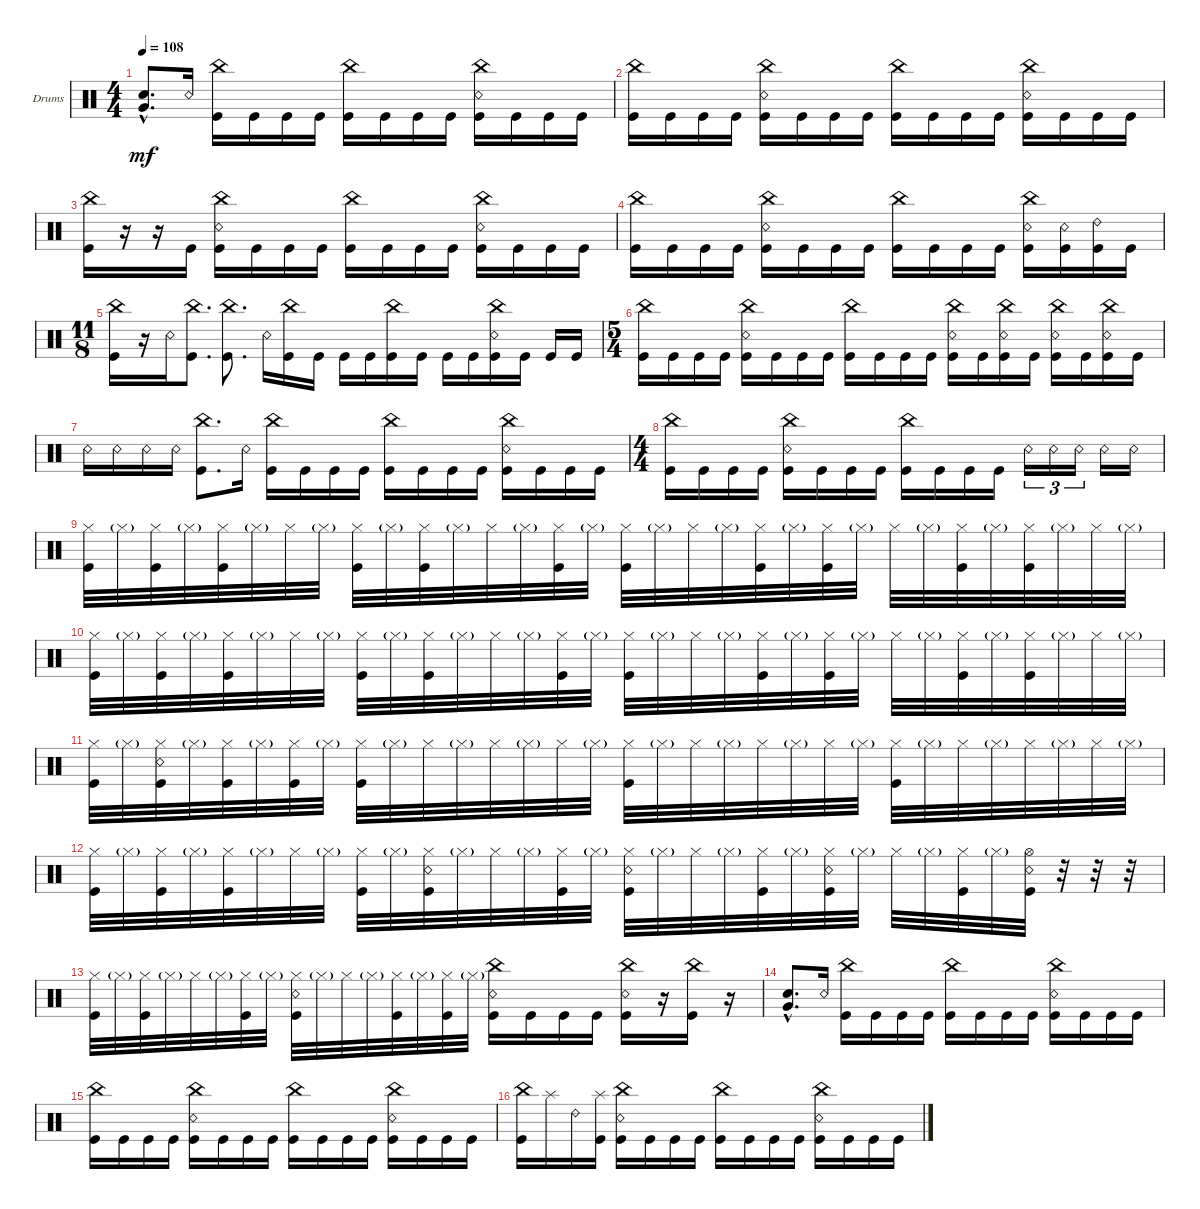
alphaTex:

\defaultSystemsLayout 4
\bracketExtendMode groupsimilarinstruments
\firstSystemTrackNameOrientation horizontal
\otherSystemsTrackNameOrientation horizontal
\track ("Drumkit" "Drums") {instrument percussion}
\staff {score}
\articulation defaults
\ts (4 4)
\tempo 108
\clef neutral
\ks c
("Snare (hit) 2" "Very Low Tom (hit)"{hac}).8{d dy mf} "Snare (rim shot)".16 ("Kick (hit)" "China (hit)").16 "Kick (hit)".16 "Kick (hit)".16 "Kick (hit)".16 ("Kick (hit)" "China (hit)").16 "Kick (hit)".16 "Kick (hit)".16 "Kick (hit)".16 ("Kick (hit)" "China (hit)" "Snare (rim shot)").16 "Kick (hit)".16 "Kick (hit)".16 "Kick (hit)".16 |
("Kick (hit)" "China (hit)").16 "Kick (hit)".16 "Kick (hit)".16 "Kick (hit)".16 ("Kick (hit)" "China (hit)" "Snare (rim shot)").16 "Kick (hit)".16 "Kick (hit)".16 "Kick (hit)".16 ("Kick (hit)" "China (hit)").16 "Kick (hit)".16 "Kick (hit)".16 "Kick (hit)".16 ("Kick (hit)" "China (hit)" "Snare (rim shot)").16 "Kick (hit)".16 "Kick (hit)".16 "Kick (hit)".16 |
("Kick (hit)" "China (hit)").16 r.16 r.16 "Kick (hit)".16 ("Kick (hit)" "China (hit)" "Snare (rim shot)").16 "Kick (hit)".16 "Kick (hit)".16 "Kick (hit)".16 ("Kick (hit)" "China (hit)").16 "Kick (hit)".16 "Kick (hit)".16 "Kick (hit)".16 ("Kick (hit)" "China (hit)" "Snare (rim shot)").16 "Kick (hit)".16 "Kick (hit)".16 "Kick (hit)".16 |
("Kick (hit)" "China (hit)").16 "Kick (hit)".16 "Kick (hit)".16 "Kick (hit)".16 ("Kick (hit)" "China (hit)" "Snare (rim shot)").16 "Kick (hit)".16 "Kick (hit)".16 "Kick (hit)".16 ("Kick (hit)" "China (hit)").16 "Kick (hit)".16 "Kick (hit)".16 "Kick (hit)".16 ("Kick (hit)" "China (hit)" "Snare (rim shot)").16 ("Kick (hit)" "Snare (rim shot)").16 ("Kick (hit)" "Ride (bell) 2").16 "Kick (hit)".16 |
\ts (11 8)
("Kick (hit)" "China (hit)").16 r.16 "Snare (rim shot)".16 ("Kick (hit)" "China (hit)").8{d} ("Kick (hit)" "China (hit)").8{d} "Snare (rim shot)".16 ("Kick (hit)" "China (hit)").16 "Kick (hit)".16 "Kick (hit)".16 "Kick (hit)".16 ("Kick (hit)" "China (hit)").16 "Kick (hit)".16 "Kick (hit)".16 "Kick (hit)".16 ("Kick (hit)" "China (hit)" "Snare (rim shot)").16 "Kick (hit)".16 "Kick (hit)".16 "Kick (hit)".16 |
\ts (5 4)
("Kick (hit)" "China (hit)").16 "Kick (hit)".16 "Kick (hit)".16 "Kick (hit)".16 ("Kick (hit)" "China (hit)" "Snare (rim shot)").16 "Kick (hit)".16 "Kick (hit)".16 "Kick (hit)".16 ("Kick (hit)" "China (hit)").16 "Kick (hit)".16 "Kick (hit)".16 "Kick (hit)".16 ("Kick (hit)" "China (hit)" "Snare (rim shot)").16 "Kick (hit)".16 ("Kick (hit)" "China (hit)" "Snare (rim shot)").16 "Kick (hit)".16 ("Kick (hit)" "China (hit)" "Snare (rim shot)").16 "Kick (hit)".16 ("Kick (hit)" "China (hit)" "Snare (rim shot)").16 "Kick (hit)".16 |
"Snare (rim shot)".16 "Snare (rim shot)".16 "Snare (rim shot)".16 "Snare (rim shot)".16 ("Kick (hit)" "China (hit)").8{d} "Snare (rim shot)".16 ("Kick (hit)" "China (hit)").16 "Kick (hit)".16 "Kick (hit)".16 "Kick (hit)".16 ("Kick (hit)" "China (hit)").16 "Kick (hit)".16 "Kick (hit)".16 "Kick (hit)".16 ("Kick (hit)" "China (hit)" "Snare (rim shot)").16 "Kick (hit)".16 "Kick (hit)".16 "Kick (hit)".16 |
\ts (4 4)
("Kick (hit)" "China (hit)").16 "Kick (hit)".16 "Kick (hit)".16 "Kick (hit)".16 ("Kick (hit)" "China (hit)" "Snare (rim shot)").16 "Kick (hit)".16 "Kick (hit)".16 "Kick (hit)".16 ("Kick (hit)" "China (hit)").16 "Kick (hit)".16 "Kick (hit)".16 "Kick (hit)".16 "Snare (rim shot)".16{tu (3 2)} "Snare (rim shot)".16{tu (3 2)} "Snare (rim shot)".16{tu (3 2)} "Snare (rim shot)".16 "Snare (rim shot)".16 |
("Hi-Hat (closed)" "Kick (hit)").32 "Hi-Hat (closed)"{g}.32 ("Hi-Hat (closed)" "Kick (hit)").32 "Hi-Hat (closed)"{g}.32 ("Hi-Hat (closed)" "Kick (hit)").32 "Hi-Hat (closed)"{g}.32 "Hi-Hat (closed)".32 "Hi-Hat (closed)"{g}.32 ("Hi-Hat (closed)" "Kick (hit)").32 "Hi-Hat (closed)"{g}.32 ("Hi-Hat (closed)" "Kick (hit)").32 "Hi-Hat (closed)"{g}.32 "Hi-Hat (closed)".32 "Hi-Hat (closed)"{g}.32 ("Hi-Hat (closed)" "Kick (hit)").32 "Hi-Hat (closed)"{g}.32 ("Hi-Hat (closed)" "Kick (hit)").32 "Hi-Hat (closed)"{g}.32 "Hi-Hat (closed)".32 "Hi-Hat (closed)"{g}.32 ("Hi-Hat (closed)" "Kick (hit)").32 "Hi-Hat (closed)"{g}.32 ("Hi-Hat (closed)" "Kick (hit)").32 "Hi-Hat (closed)"{g}.32 "Hi-Hat (closed)".32 "Hi-Hat (closed)"{g}.32 ("Hi-Hat (closed)" "Kick (hit)").32 "Hi-Hat (closed)"{g}.32 ("Hi-Hat (closed)" "Kick (hit)").32 "Hi-Hat (closed)"{g}.32 "Hi-Hat (closed)".32 "Hi-Hat (closed)"{g}.32 |
("Hi-Hat (closed)" "Kick (hit)").32 "Hi-Hat (closed)"{g}.32 ("Hi-Hat (closed)" "Kick (hit)").32 "Hi-Hat (closed)"{g}.32 ("Hi-Hat (closed)" "Kick (hit)").32 "Hi-Hat (closed)"{g}.32 "Hi-Hat (closed)".32 "Hi-Hat (closed)"{g}.32 ("Hi-Hat (closed)" "Kick (hit)").32 "Hi-Hat (closed)"{g}.32 ("Hi-Hat (closed)" "Kick (hit)").32 "Hi-Hat (closed)"{g}.32 "Hi-Hat (closed)".32 "Hi-Hat (closed)"{g}.32 ("Hi-Hat (closed)" "Kick (hit)").32 "Hi-Hat (closed)"{g}.32 ("Hi-Hat (closed)" "Kick (hit)").32 "Hi-Hat (closed)"{g}.32 "Hi-Hat (closed)".32 "Hi-Hat (closed)"{g}.32 ("Hi-Hat (closed)" "Kick (hit)").32 "Hi-Hat (closed)"{g}.32 ("Hi-Hat (closed)" "Kick (hit)").32 "Hi-Hat (closed)"{g}.32 "Hi-Hat (closed)".32 "Hi-Hat (closed)"{g}.32 ("Hi-Hat (closed)" "Kick (hit)").32 "Hi-Hat (closed)"{g}.32 ("Hi-Hat (closed)" "Kick (hit)").32 "Hi-Hat (closed)"{g}.32 "Hi-Hat (closed)".32 "Hi-Hat (closed)"{g}.32 |
("Hi-Hat (closed)" "Kick (hit)").32 "Hi-Hat (closed)"{g}.32 ("Hi-Hat (closed)" "Kick (hit)" "Snare (rim shot)").32 "Hi-Hat (closed)"{g}.32 ("Hi-Hat (closed)" "Kick (hit)").32 "Hi-Hat (closed)"{g}.32 ("Hi-Hat (closed)" "Kick (hit)").32 "Hi-Hat (closed)"{g}.32 ("Hi-Hat (closed)" "Kick (hit)").32 "Hi-Hat (closed)"{g}.32 "Hi-Hat (closed)".32 "Hi-Hat (closed)"{g}.32 "Hi-Hat (closed)".32 "Hi-Hat (closed)"{g}.32 "Hi-Hat (closed)".32 "Hi-Hat (closed)"{g}.32 ("Hi-Hat (closed)" "Kick (hit)").32 "Hi-Hat (closed)"{g}.32 "Hi-Hat (closed)".32 "Hi-Hat (closed)"{g}.32 "Hi-Hat (closed)".32 "Hi-Hat (closed)"{g}.32 "Hi-Hat (closed)".32 "Hi-Hat (closed)"{g}.32 ("Hi-Hat (closed)" "Kick (hit)").32 "Hi-Hat (closed)"{g}.32 "Hi-Hat (closed)".32 "Hi-Hat (closed)"{g}.32 "Hi-Hat (closed)".32 "Hi-Hat (closed)"{g}.32 "Hi-Hat (closed)".32 "Hi-Hat (closed)"{g}.32 |
("Hi-Hat (closed)" "Kick (hit)").32 "Hi-Hat (closed)"{g}.32 ("Hi-Hat (closed)" "Kick (hit)").32 "Hi-Hat (closed)"{g}.32 ("Hi-Hat (closed)" "Kick (hit)").32 "Hi-Hat (closed)"{g}.32 "Hi-Hat (closed)".32 "Hi-Hat (closed)"{g}.32 ("Hi-Hat (closed)" "Kick (hit)").32 "Hi-Hat (closed)"{g}.32 ("Hi-Hat (closed)" "Kick (hit)" "Snare (rim shot)").32 "Hi-Hat (closed)"{g}.32 "Hi-Hat (closed)".32 "Hi-Hat (closed)"{g}.32 ("Hi-Hat (closed)" "Kick (hit)").32 "Hi-Hat (closed)"{g}.32 ("Hi-Hat (closed)" "Kick (hit)" "Snare (rim shot)").32 "Hi-Hat (closed)"{g}.32 "Hi-Hat (closed)".32 "Hi-Hat (closed)"{g}.32 ("Hi-Hat (closed)" "Kick (hit)").32 "Hi-Hat (closed)"{g}.32 ("Hi-Hat (closed)" "Kick (hit)" "Snare (rim shot)").32 "Hi-Hat (closed)"{g}.32 "Hi-Hat (closed)".32 "Hi-Hat (closed)"{g}.32 ("Hi-Hat (closed)" "Kick (hit)").32 "Hi-Hat (closed)"{g}.32 ("Hi-Hat (open)" "Kick (hit)" "Snare (rim shot)").32 r.32 r.32 r.32 |
("Hi-Hat (closed)" "Kick (hit)").32 "Hi-Hat (closed)"{g}.32 ("Hi-Hat (closed)" "Kick (hit)").32 "Hi-Hat (closed)"{g}.32 "Hi-Hat (closed)".32 "Hi-Hat (closed)"{g}.32 ("Hi-Hat (closed)" "Kick (hit)").32 "Hi-Hat (closed)"{g}.32 ("Hi-Hat (closed)" "Kick (hit)" "Snare (rim shot)").32 "Hi-Hat (closed)"{g}.32 "Hi-Hat (closed)".32 "Hi-Hat (closed)"{g}.32 ("Hi-Hat (closed)" "Kick (hit)").32 "Hi-Hat (closed)"{g}.32 ("Hi-Hat (closed)" "Kick (hit)").32 "Hi-Hat (closed)"{g}.32 ("Snare (rim shot)" "China (hit)" "Kick (hit)").16 "Kick (hit)".16 "Kick (hit)".16 "Kick (hit)".16 ("Snare (rim shot)" "Kick (hit)" "China (hit)").16 r.16 ("Kick (hit)" "China (hit)").16 r.16 |
("Snare (hit) 2" "Very Low Tom (hit)"{hac}).8{d} "Snare (rim shot)".16 ("Kick (hit)" "China (hit)").16 "Kick (hit)".16 "Kick (hit)".16 "Kick (hit)".16 ("Kick (hit)" "China (hit)").16 "Kick (hit)".16 "Kick (hit)".16 "Kick (hit)".16 ("Kick (hit)" "China (hit)" "Snare (rim shot)").16 "Kick (hit)".16 "Kick (hit)".16 "Kick (hit)".16 |
("Kick (hit)" "China (hit)").16 "Kick (hit)".16 "Kick (hit)".16 "Kick (hit)".16 ("Kick (hit)" "China (hit)" "Snare (rim shot)").16 "Kick (hit)".16 "Kick (hit)".16 "Kick (hit)".16 ("Kick (hit)" "China (hit)").16 "Kick (hit)".16 "Kick (hit)".16 "Kick (hit)".16 ("Kick (hit)" "China (hit)" "Snare (rim shot)").16 "Kick (hit)".16 "Kick (hit)".16 "Kick (hit)".16 |
("Kick (hit)" "China (hit)").16 "Splash (hit)".16 "Ride (bell) 2".16 ("Splash (hit)" "Kick (hit)").16 ("Kick (hit)" "China (hit)" "Snare (rim shot)").16 "Kick (hit)".16 "Kick (hit)".16 "Kick (hit)".16 ("Kick (hit)" "China (hit)").16 "Kick (hit)".16 "Kick (hit)".16 "Kick (hit)".16 ("Kick (hit)" "China (hit)" "Snare (rim shot)").16 "Kick (hit)".16 "Kick (hit)".16 "Kick (hit)".16
